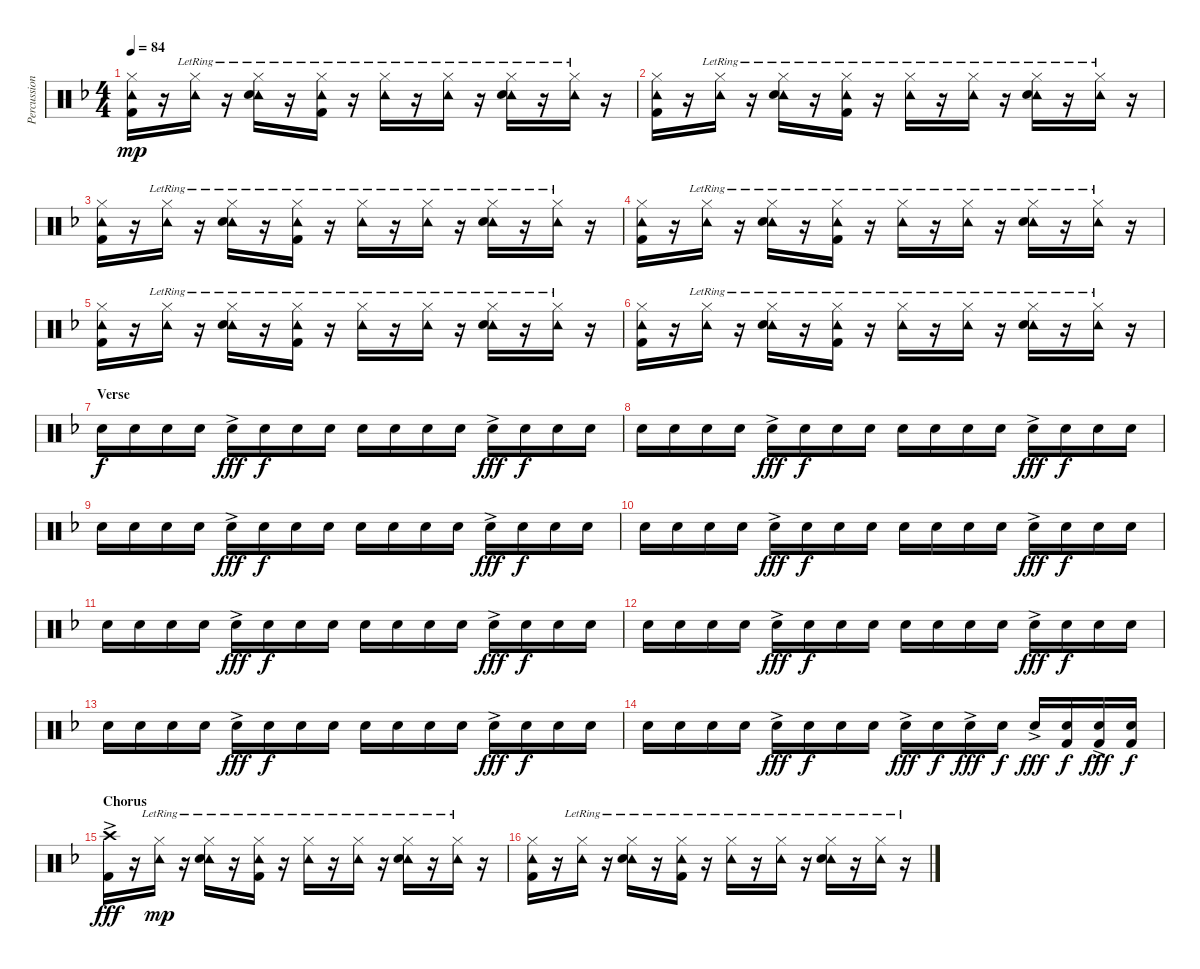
\track ("Percussion" "Percussion") {instrument percussion}
\staff {score}
\articulation defaults
\ts (4 4)
\tempo 84
\clef neutral
\ks f
("Hi-Hat (closed)" "Tambourine (hit)" "Kick (hit) 2").16{dy mp} r.16 ("Hi-Hat (closed)" "Tambourine (hit)"{lr}).16 r.16 ("Hi-Hat (closed)" "Tambourine (hit)"{lr} "Snare (hit) 2").16 r.16 ("Hi-Hat (closed)" "Tambourine (hit)"{lr} "Kick (hit) 2").16 r.16 ("Hi-Hat (closed)" "Tambourine (hit)"{lr}).16 r.16 ("Hi-Hat (closed)" "Tambourine (hit)"{lr}).16 r.16 ("Hi-Hat (closed)" "Tambourine (hit)"{lr} "Snare (hit) 2").16 r.16 ("Hi-Hat (closed)" "Tambourine (hit)"{lr}).16 r.16 |
("Hi-Hat (closed)" "Tambourine (hit)" "Kick (hit) 2").16 r.16 ("Hi-Hat (closed)" "Tambourine (hit)"{lr}).16 r.16 ("Hi-Hat (closed)" "Tambourine (hit)"{lr} "Snare (hit) 2").16 r.16 ("Hi-Hat (closed)" "Tambourine (hit)"{lr} "Kick (hit) 2").16 r.16 ("Hi-Hat (closed)" "Tambourine (hit)"{lr}).16 r.16 ("Hi-Hat (closed)" "Tambourine (hit)"{lr}).16 r.16 ("Hi-Hat (closed)" "Tambourine (hit)"{lr} "Snare (hit) 2").16 r.16 ("Hi-Hat (closed)" "Tambourine (hit)"{lr}).16 r.16 |
("Hi-Hat (closed)" "Tambourine (hit)" "Kick (hit) 2").16 r.16 ("Hi-Hat (closed)" "Tambourine (hit)"{lr}).16 r.16 ("Hi-Hat (closed)" "Tambourine (hit)"{lr} "Snare (hit) 2").16 r.16 ("Hi-Hat (closed)" "Tambourine (hit)"{lr} "Kick (hit) 2").16 r.16 ("Hi-Hat (closed)" "Tambourine (hit)"{lr}).16 r.16 ("Hi-Hat (closed)" "Tambourine (hit)"{lr}).16 r.16 ("Hi-Hat (closed)" "Tambourine (hit)"{lr} "Snare (hit) 2").16 r.16 ("Hi-Hat (closed)" "Tambourine (hit)"{lr}).16 r.16 |
("Hi-Hat (closed)" "Tambourine (hit)" "Kick (hit) 2").16 r.16 ("Hi-Hat (closed)" "Tambourine (hit)"{lr}).16 r.16 ("Hi-Hat (closed)" "Tambourine (hit)"{lr} "Snare (hit) 2").16 r.16 ("Hi-Hat (closed)" "Tambourine (hit)"{lr} "Kick (hit) 2").16 r.16 ("Hi-Hat (closed)" "Tambourine (hit)"{lr}).16 r.16 ("Hi-Hat (closed)" "Tambourine (hit)"{lr}).16 r.16 ("Hi-Hat (closed)" "Tambourine (hit)"{lr} "Snare (hit) 2").16 r.16 ("Hi-Hat (closed)" "Tambourine (hit)"{lr}).16 r.16 |
("Hi-Hat (closed)" "Tambourine (hit)" "Kick (hit) 2").16 r.16 ("Hi-Hat (closed)" "Tambourine (hit)"{lr}).16 r.16 ("Hi-Hat (closed)" "Tambourine (hit)"{lr} "Snare (hit) 2").16 r.16 ("Hi-Hat (closed)" "Tambourine (hit)"{lr} "Kick (hit) 2").16 r.16 ("Hi-Hat (closed)" "Tambourine (hit)"{lr}).16 r.16 ("Hi-Hat (closed)" "Tambourine (hit)"{lr}).16 r.16 ("Hi-Hat (closed)" "Tambourine (hit)"{lr} "Snare (hit) 2").16 r.16 ("Hi-Hat (closed)" "Tambourine (hit)"{lr}).16 r.16 |
("Hi-Hat (closed)" "Tambourine (hit)" "Kick (hit) 2").16 r.16 ("Hi-Hat (closed)" "Tambourine (hit)"{lr}).16 r.16 ("Hi-Hat (closed)" "Tambourine (hit)"{lr} "Snare (hit) 2").16 r.16 ("Hi-Hat (closed)" "Tambourine (hit)"{lr} "Kick (hit) 2").16 r.16 ("Hi-Hat (closed)" "Tambourine (hit)"{lr}).16 r.16 ("Hi-Hat (closed)" "Tambourine (hit)"{lr}).16 r.16 ("Hi-Hat (closed)" "Tambourine (hit)"{lr} "Snare (hit) 2").16 r.16 ("Hi-Hat (closed)" "Tambourine (hit)"{lr}).16 r.16 |
\section ("" "Verse")
"Snare (hit) 2".16{dy f volume 6} "Snare (hit) 2".16 "Snare (hit) 2".16 "Snare (hit) 2".16 "Snare (hit) 2"{ac}.16{dy fff} "Snare (hit) 2".16{dy f} "Snare (hit) 2".16 "Snare (hit) 2".16 "Snare (hit) 2".16 "Snare (hit) 2".16 "Snare (hit) 2".16 "Snare (hit) 2".16 "Snare (hit) 2"{ac}.16{dy fff} "Snare (hit) 2".16{dy f} "Snare (hit) 2".16 "Snare (hit) 2".16 |
"Snare (hit) 2".16 "Snare (hit) 2".16 "Snare (hit) 2".16 "Snare (hit) 2".16 "Snare (hit) 2"{ac}.16{dy fff} "Snare (hit) 2".16{dy f} "Snare (hit) 2".16 "Snare (hit) 2".16 "Snare (hit) 2".16 "Snare (hit) 2".16 "Snare (hit) 2".16 "Snare (hit) 2".16 "Snare (hit) 2"{ac}.16{dy fff} "Snare (hit) 2".16{dy f} "Snare (hit) 2".16 "Snare (hit) 2".16 |
"Snare (hit) 2".16 "Snare (hit) 2".16 "Snare (hit) 2".16 "Snare (hit) 2".16 "Snare (hit) 2"{ac}.16{dy fff} "Snare (hit) 2".16{dy f} "Snare (hit) 2".16 "Snare (hit) 2".16 "Snare (hit) 2".16 "Snare (hit) 2".16 "Snare (hit) 2".16 "Snare (hit) 2".16 "Snare (hit) 2"{ac}.16{dy fff} "Snare (hit) 2".16{dy f} "Snare (hit) 2".16 "Snare (hit) 2".16 |
"Snare (hit) 2".16 "Snare (hit) 2".16 "Snare (hit) 2".16 "Snare (hit) 2".16 "Snare (hit) 2"{ac}.16{dy fff} "Snare (hit) 2".16{dy f} "Snare (hit) 2".16 "Snare (hit) 2".16 "Snare (hit) 2".16 "Snare (hit) 2".16 "Snare (hit) 2".16 "Snare (hit) 2".16 "Snare (hit) 2"{ac}.16{dy fff} "Snare (hit) 2".16{dy f} "Snare (hit) 2".16 "Snare (hit) 2".16 |
"Snare (hit) 2".16 "Snare (hit) 2".16 "Snare (hit) 2".16 "Snare (hit) 2".16 "Snare (hit) 2"{ac}.16{dy fff} "Snare (hit) 2".16{dy f} "Snare (hit) 2".16 "Snare (hit) 2".16 "Snare (hit) 2".16 "Snare (hit) 2".16 "Snare (hit) 2".16 "Snare (hit) 2".16 "Snare (hit) 2"{ac}.16{dy fff} "Snare (hit) 2".16{dy f} "Snare (hit) 2".16 "Snare (hit) 2".16 |
"Snare (hit) 2".16 "Snare (hit) 2".16 "Snare (hit) 2".16 "Snare (hit) 2".16 "Snare (hit) 2"{ac}.16{dy fff} "Snare (hit) 2".16{dy f} "Snare (hit) 2".16 "Snare (hit) 2".16 "Snare (hit) 2".16 "Snare (hit) 2".16 "Snare (hit) 2".16 "Snare (hit) 2".16 "Snare (hit) 2"{ac}.16{dy fff} "Snare (hit) 2".16{dy f} "Snare (hit) 2".16 "Snare (hit) 2".16 |
"Snare (hit) 2".16 "Snare (hit) 2".16 "Snare (hit) 2".16 "Snare (hit) 2".16 "Snare (hit) 2"{ac}.16{dy fff} "Snare (hit) 2".16{dy f} "Snare (hit) 2".16 "Snare (hit) 2".16 "Snare (hit) 2".16 "Snare (hit) 2".16 "Snare (hit) 2".16 "Snare (hit) 2".16 "Snare (hit) 2"{ac}.16{dy fff} "Snare (hit) 2".16{dy f} "Snare (hit) 2".16 "Snare (hit) 2".16 |
"Snare (hit) 2".16 "Snare (hit) 2".16 "Snare (hit) 2".16 "Snare (hit) 2".16 "Snare (hit) 2"{ac}.16{dy fff} "Snare (hit) 2".16{dy f} "Snare (hit) 2".16 "Snare (hit) 2".16 "Snare (hit) 2"{ac}.16{dy fff} "Snare (hit) 2".16{dy f} "Snare (hit) 2"{ac}.16{dy fff} "Snare (hit) 2".16{dy f} "Snare (hit) 2"{ac}.16{dy fff} ("Snare (hit) 2" "Kick (hit) 2").16{dy f volume 9} ("Snare (hit) 2"{ac} "Kick (hit) 2").16{dy fff} ("Snare (hit) 2" "Kick (hit) 2").16{dy f} |
\section ("" "Chorus")
("Crash high (hit)"{ac} "Kick (hit) 2").16{dy fff} r.16 ("Hi-Hat (closed)" "Tambourine (hit)"{lr}).16{dy mp} r.16 ("Hi-Hat (closed)" "Tambourine (hit)"{lr} "Snare (hit) 2").16 r.16 ("Hi-Hat (closed)" "Tambourine (hit)"{lr} "Kick (hit) 2").16 r.16 ("Hi-Hat (closed)" "Tambourine (hit)"{lr}).16 r.16 ("Hi-Hat (closed)" "Tambourine (hit)"{lr}).16 r.16 ("Hi-Hat (closed)" "Tambourine (hit)"{lr} "Snare (hit) 2").16 r.16 ("Hi-Hat (closed)" "Tambourine (hit)"{lr}).16 r.16 |
("Hi-Hat (closed)" "Tambourine (hit)" "Kick (hit) 2").16 r.16 ("Hi-Hat (closed)" "Tambourine (hit)"{lr}).16 r.16 ("Hi-Hat (closed)" "Tambourine (hit)"{lr} "Snare (hit) 2").16 r.16 ("Hi-Hat (closed)" "Tambourine (hit)"{lr} "Kick (hit) 2").16 r.16 ("Hi-Hat (closed)" "Tambourine (hit)"{lr}).16 r.16 ("Hi-Hat (closed)" "Tambourine (hit)"{lr}).16 r.16 ("Hi-Hat (closed)" "Tambourine (hit)"{lr} "Snare (hit) 2").16 r.16 ("Hi-Hat (closed)" "Tambourine (hit)"{lr}).16 r.16
